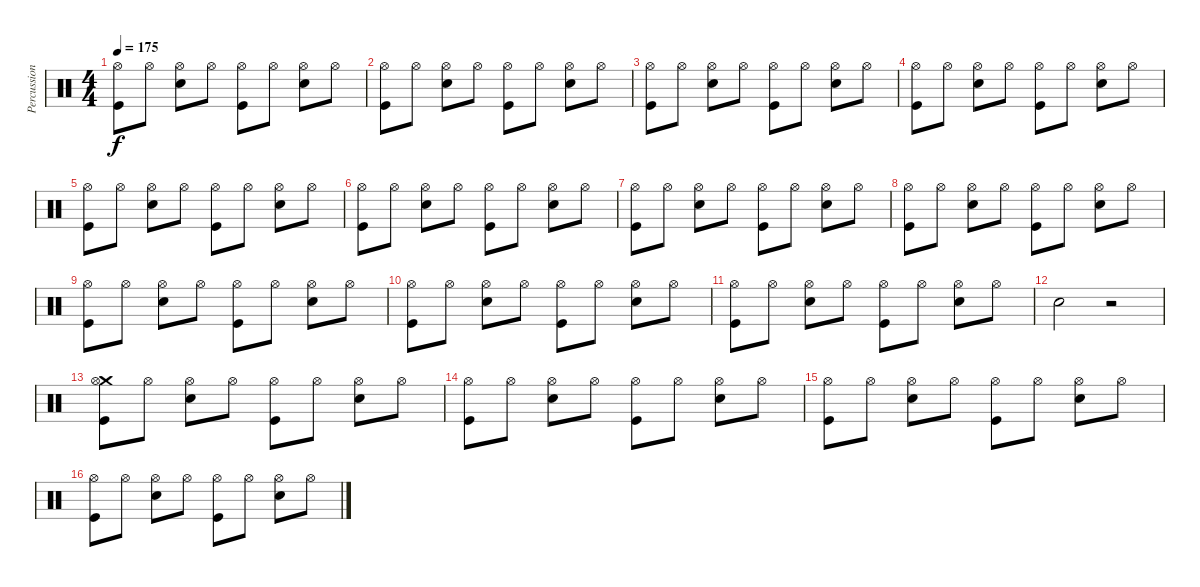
\track ("Percussion" "Percussion") {instrument percussion}
\staff {score}
\articulation defaults
\ts (4 4)
\tempo 175
\clef neutral
\ks c
("Hi-Hat (open)" "Kick (hit)").8{dy f} "Hi-Hat (open)".8 ("Hi-Hat (open)" "Snare (hit) 2").8 "Hi-Hat (open)".8 ("Hi-Hat (open)" "Kick (hit)").8 "Hi-Hat (open)".8 ("Hi-Hat (open)" "Snare (hit) 2").8 "Hi-Hat (open)".8 |
("Hi-Hat (open)" "Kick (hit)").8 "Hi-Hat (open)".8 ("Hi-Hat (open)" "Snare (hit) 2").8 "Hi-Hat (open)".8 ("Hi-Hat (open)" "Kick (hit)").8 "Hi-Hat (open)".8 ("Hi-Hat (open)" "Snare (hit) 2").8 "Hi-Hat (open)".8 |
("Hi-Hat (open)" "Kick (hit)").8 "Hi-Hat (open)".8 ("Hi-Hat (open)" "Snare (hit) 2").8 "Hi-Hat (open)".8 ("Hi-Hat (open)" "Kick (hit)").8 "Hi-Hat (open)".8 ("Hi-Hat (open)" "Snare (hit) 2").8 "Hi-Hat (open)".8 |
("Hi-Hat (open)" "Kick (hit)").8 "Hi-Hat (open)".8 ("Hi-Hat (open)" "Snare (hit) 2").8 "Hi-Hat (open)".8 ("Hi-Hat (open)" "Kick (hit)").8 "Hi-Hat (open)".8 ("Hi-Hat (open)" "Snare (hit) 2").8 "Hi-Hat (open)".8 |
("Hi-Hat (open)" "Kick (hit)").8 "Hi-Hat (open)".8 ("Hi-Hat (open)" "Snare (hit) 2").8 "Hi-Hat (open)".8 ("Hi-Hat (open)" "Kick (hit)").8 "Hi-Hat (open)".8 ("Hi-Hat (open)" "Snare (hit) 2").8 "Hi-Hat (open)".8 |
("Hi-Hat (open)" "Kick (hit)").8 "Hi-Hat (open)".8 ("Hi-Hat (open)" "Snare (hit) 2").8 "Hi-Hat (open)".8 ("Hi-Hat (open)" "Kick (hit)").8 "Hi-Hat (open)".8 ("Hi-Hat (open)" "Snare (hit) 2").8 "Hi-Hat (open)".8 |
("Hi-Hat (open)" "Kick (hit)").8 "Hi-Hat (open)".8 ("Hi-Hat (open)" "Snare (hit) 2").8 "Hi-Hat (open)".8 ("Hi-Hat (open)" "Kick (hit)").8 "Hi-Hat (open)".8 ("Hi-Hat (open)" "Snare (hit) 2").8 "Hi-Hat (open)".8 |
("Hi-Hat (open)" "Kick (hit)").8 "Hi-Hat (open)".8 ("Hi-Hat (open)" "Snare (hit) 2").8 "Hi-Hat (open)".8 ("Hi-Hat (open)" "Kick (hit)").8 "Hi-Hat (open)".8 ("Hi-Hat (open)" "Snare (hit) 2").8 "Hi-Hat (open)".8 |
("Hi-Hat (open)" "Kick (hit)").8 "Hi-Hat (open)".8 ("Hi-Hat (open)" "Snare (hit) 2").8 "Hi-Hat (open)".8 ("Hi-Hat (open)" "Kick (hit)").8 "Hi-Hat (open)".8 ("Hi-Hat (open)" "Snare (hit) 2").8 "Hi-Hat (open)".8 |
("Hi-Hat (open)" "Kick (hit)").8 "Hi-Hat (open)".8 ("Hi-Hat (open)" "Snare (hit) 2").8 "Hi-Hat (open)".8 ("Hi-Hat (open)" "Kick (hit)").8 "Hi-Hat (open)".8 ("Hi-Hat (open)" "Snare (hit) 2").8 "Hi-Hat (open)".8 |
("Hi-Hat (open)" "Kick (hit)").8 "Hi-Hat (open)".8 ("Hi-Hat (open)" "Snare (hit) 2").8 "Hi-Hat (open)".8 ("Hi-Hat (open)" "Kick (hit)").8 "Hi-Hat (open)".8 ("Hi-Hat (open)" "Snare (hit) 2").8 "Hi-Hat (open)".8 |
"Snare (hit) 2".2 r.2 |
("Crash medium (hit)" "Hi-Hat (open)" "Kick (hit)").8 "Hi-Hat (open)".8 ("Hi-Hat (open)" "Snare (hit) 2").8 "Hi-Hat (open)".8 ("Hi-Hat (open)" "Kick (hit)").8 "Hi-Hat (open)".8 ("Hi-Hat (open)" "Snare (hit) 2").8 "Hi-Hat (open)".8 |
("Hi-Hat (open)" "Kick (hit)").8 "Hi-Hat (open)".8 ("Hi-Hat (open)" "Snare (hit) 2").8 "Hi-Hat (open)".8 ("Hi-Hat (open)" "Kick (hit)").8 "Hi-Hat (open)".8 ("Hi-Hat (open)" "Snare (hit) 2").8 "Hi-Hat (open)".8 |
("Hi-Hat (open)" "Kick (hit)").8 "Hi-Hat (open)".8 ("Hi-Hat (open)" "Snare (hit) 2").8 "Hi-Hat (open)".8 ("Hi-Hat (open)" "Kick (hit)").8 "Hi-Hat (open)".8 ("Hi-Hat (open)" "Snare (hit) 2").8 "Hi-Hat (open)".8 |
("Hi-Hat (open)" "Kick (hit)").8 "Hi-Hat (open)".8 ("Hi-Hat (open)" "Snare (hit) 2").8 "Hi-Hat (open)".8 ("Hi-Hat (open)" "Kick (hit)").8 "Hi-Hat (open)".8 ("Hi-Hat (open)" "Snare (hit) 2").8 "Hi-Hat (open)".8
